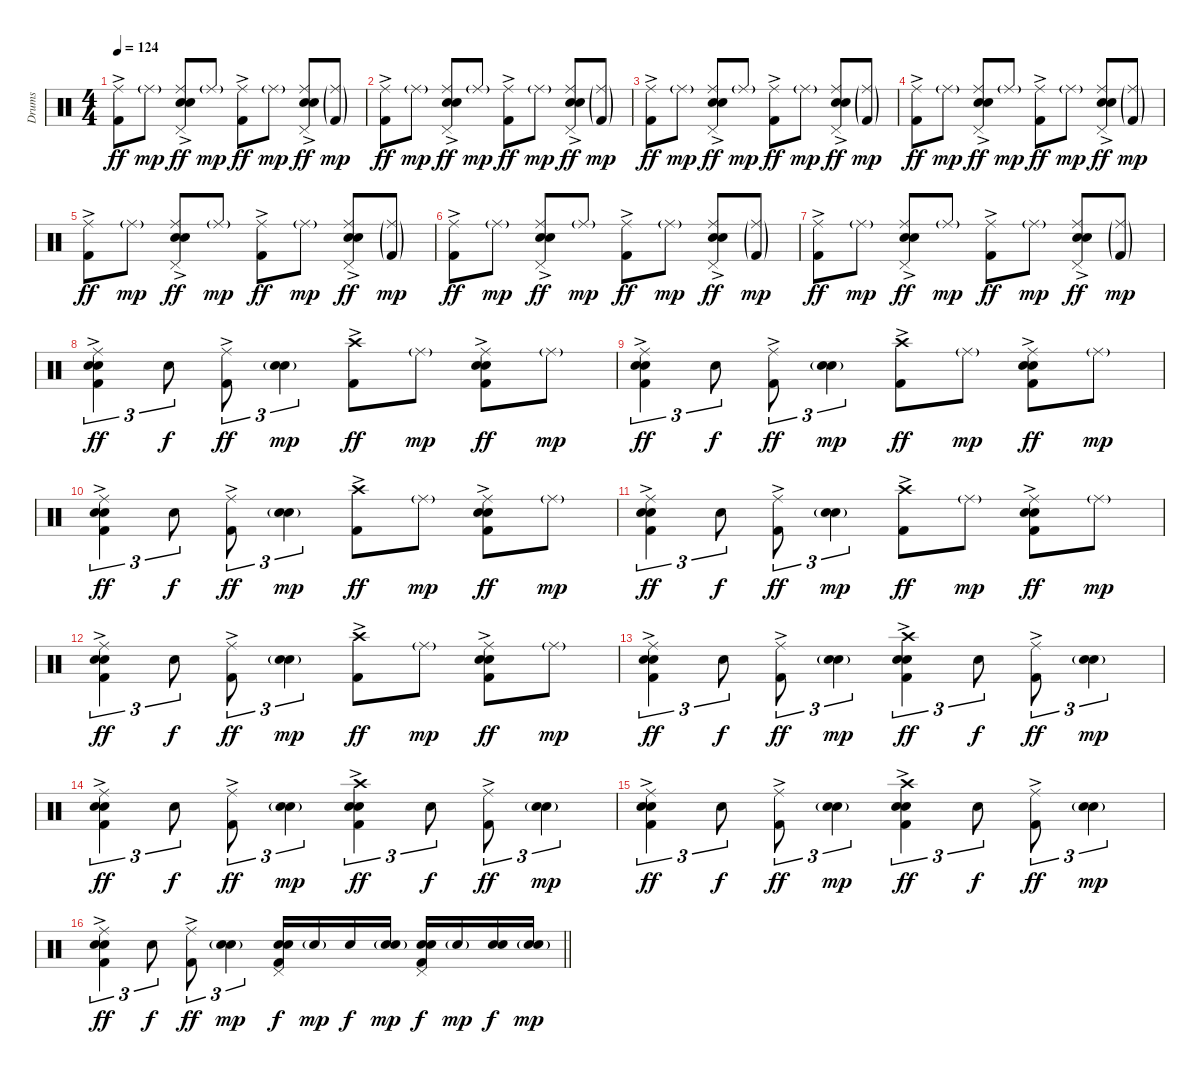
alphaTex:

\track ("Drums" "Drums") {instrument percussion}
\staff {score}
\articulation defaults
\ts (4 4)
\tempo 124
\clef neutral
\ks c
("Ride (middle)" "Kick (hit) 2"{ac}).8{dy ff} "Ride (middle)"{g}.8{dy mp} ("Ride (middle)" "Electric Snare (hit)"{ac} "Snare (hit) 2" "Pedal Hi-Hat (hit)").8{dy ff} "Ride (middle)"{g}.8{dy mp} ("Ride (middle)" "Kick (hit) 2"{ac}).8{dy ff} "Ride (middle)"{g}.8{dy mp} ("Ride (middle)" "Electric Snare (hit)"{ac} "Snare (hit) 2" "Pedal Hi-Hat (hit)").8{dy ff} ("Ride (middle)"{g} "Kick (hit) 2"{g}).8{dy mp} |
("Ride (middle)" "Kick (hit) 2"{ac}).8{dy ff} "Ride (middle)"{g}.8{dy mp} ("Ride (middle)" "Electric Snare (hit)"{ac} "Snare (hit) 2" "Pedal Hi-Hat (hit)").8{dy ff} "Ride (middle)"{g}.8{dy mp} ("Ride (middle)" "Kick (hit) 2"{ac}).8{dy ff} "Ride (middle)"{g}.8{dy mp} ("Ride (middle)" "Electric Snare (hit)"{ac} "Snare (hit) 2" "Pedal Hi-Hat (hit)").8{dy ff} ("Ride (middle)"{g} "Kick (hit) 2"{g}).8{dy mp} |
("Ride (middle)" "Kick (hit) 2"{ac}).8{dy ff} "Ride (middle)"{g}.8{dy mp} ("Ride (middle)" "Electric Snare (hit)"{ac} "Snare (hit) 2" "Pedal Hi-Hat (hit)").8{dy ff} "Ride (middle)"{g}.8{dy mp} ("Ride (middle)" "Kick (hit) 2"{ac}).8{dy ff} "Ride (middle)"{g}.8{dy mp} ("Ride (middle)" "Electric Snare (hit)"{ac} "Snare (hit) 2" "Pedal Hi-Hat (hit)").8{dy ff} ("Ride (middle)"{g} "Kick (hit) 2"{g}).8{dy mp} |
("Ride (middle)" "Kick (hit) 2"{ac}).8{dy ff} "Ride (middle)"{g}.8{dy mp} ("Ride (middle)" "Electric Snare (hit)"{ac} "Snare (hit) 2" "Pedal Hi-Hat (hit)").8{dy ff} "Ride (middle)"{g}.8{dy mp} ("Ride (middle)" "Kick (hit) 2"{ac}).8{dy ff} "Ride (middle)"{g}.8{dy mp} ("Ride (middle)" "Electric Snare (hit)"{ac} "Snare (hit) 2" "Pedal Hi-Hat (hit)").8{dy ff} ("Ride (middle)"{g} "Kick (hit) 2"{g}).8{dy mp} |
("Ride (middle)" "Kick (hit) 2"{ac}).8{dy ff} "Ride (middle)"{g}.8{dy mp} ("Ride (middle)" "Electric Snare (hit)"{ac} "Snare (hit) 2" "Pedal Hi-Hat (hit)").8{dy ff} "Ride (middle)"{g}.8{dy mp} ("Ride (middle)" "Kick (hit) 2"{ac}).8{dy ff} "Ride (middle)"{g}.8{dy mp} ("Ride (middle)" "Electric Snare (hit)"{ac} "Snare (hit) 2" "Pedal Hi-Hat (hit)").8{dy ff} ("Ride (middle)"{g} "Kick (hit) 2"{g}).8{dy mp} |
("Ride (middle)" "Kick (hit) 2"{ac}).8{dy ff} "Ride (middle)"{g}.8{dy mp} ("Ride (middle)" "Electric Snare (hit)"{ac} "Snare (hit) 2" "Pedal Hi-Hat (hit)").8{dy ff} "Ride (middle)"{g}.8{dy mp} ("Ride (middle)" "Kick (hit) 2"{ac}).8{dy ff} "Ride (middle)"{g}.8{dy mp} ("Ride (middle)" "Electric Snare (hit)"{ac} "Snare (hit) 2" "Pedal Hi-Hat (hit)").8{dy ff} ("Ride (middle)"{g} "Kick (hit) 2"{g}).8{dy mp} |
("Ride (middle)" "Kick (hit) 2"{ac}).8{dy ff} "Ride (middle)"{g}.8{dy mp} ("Ride (middle)" "Electric Snare (hit)"{ac} "Snare (hit) 2" "Pedal Hi-Hat (hit)").8{dy ff} "Ride (middle)"{g}.8{dy mp} ("Ride (middle)" "Kick (hit) 2"{ac}).8{dy ff} "Ride (middle)"{g}.8{dy mp} ("Ride (middle)" "Electric Snare (hit)"{ac} "Snare (hit) 2" "Pedal Hi-Hat (hit)").8{dy ff} ("Ride (middle)"{g} "Kick (hit) 2"{g}).8{dy mp} |
("Ride (middle)" "Electric Snare (hit)"{ac} "Snare (hit) 2" "Kick (hit) 2"{ac}).4{tu (3 2) dy ff} "Snare (hit) 2".8{tu (3 2) dy f} ("Ride (middle)" "Kick (hit) 2"{ac}).8{tu (3 2) dy ff} ("Electric Snare (hit)"{g} "Snare (hit) 2").4{tu (3 2) dy mp} ("Crash high (hit)" "Kick (hit) 2"{ac}).8{dy ff} "Ride (middle)"{g}.8{dy mp} ("Ride (middle)" "Electric Snare (hit)"{ac} "Snare (hit) 2" "Kick (hit) 2").8{dy ff} "Ride (middle)"{g}.8{dy mp} |
("Ride (middle)" "Electric Snare (hit)"{ac} "Snare (hit) 2" "Kick (hit) 2"{ac}).4{tu (3 2) dy ff} "Snare (hit) 2".8{tu (3 2) dy f} ("Ride (middle)" "Kick (hit) 2"{ac}).8{tu (3 2) dy ff} ("Electric Snare (hit)"{g} "Snare (hit) 2").4{tu (3 2) dy mp} ("Crash high (hit)" "Kick (hit) 2"{ac}).8{dy ff} "Ride (middle)"{g}.8{dy mp} ("Ride (middle)" "Electric Snare (hit)"{ac} "Snare (hit) 2" "Kick (hit) 2").8{dy ff} "Ride (middle)"{g}.8{dy mp} |
("Ride (middle)" "Electric Snare (hit)"{ac} "Snare (hit) 2" "Kick (hit) 2"{ac}).4{tu (3 2) dy ff} "Snare (hit) 2".8{tu (3 2) dy f} ("Ride (middle)" "Kick (hit) 2"{ac}).8{tu (3 2) dy ff} ("Electric Snare (hit)"{g} "Snare (hit) 2").4{tu (3 2) dy mp} ("Crash high (hit)" "Kick (hit) 2"{ac}).8{dy ff} "Ride (middle)"{g}.8{dy mp} ("Ride (middle)" "Electric Snare (hit)"{ac} "Snare (hit) 2" "Kick (hit) 2").8{dy ff} "Ride (middle)"{g}.8{dy mp} |
("Ride (middle)" "Electric Snare (hit)"{ac} "Snare (hit) 2" "Kick (hit) 2"{ac}).4{tu (3 2) dy ff} "Snare (hit) 2".8{tu (3 2) dy f} ("Ride (middle)" "Kick (hit) 2"{ac}).8{tu (3 2) dy ff} ("Electric Snare (hit)"{g} "Snare (hit) 2").4{tu (3 2) dy mp} ("Crash high (hit)" "Kick (hit) 2"{ac}).8{dy ff} "Ride (middle)"{g}.8{dy mp} ("Ride (middle)" "Electric Snare (hit)"{ac} "Snare (hit) 2" "Kick (hit) 2").8{dy ff} "Ride (middle)"{g}.8{dy mp} |
("Ride (middle)" "Electric Snare (hit)"{ac} "Snare (hit) 2" "Kick (hit) 2"{ac}).4{tu (3 2) dy ff} "Snare (hit) 2".8{tu (3 2) dy f} ("Ride (middle)" "Kick (hit) 2"{ac}).8{tu (3 2) dy ff} ("Electric Snare (hit)"{g} "Snare (hit) 2").4{tu (3 2) dy mp} ("Crash high (hit)" "Kick (hit) 2"{ac}).8{dy ff} "Ride (middle)"{g}.8{dy mp} ("Ride (middle)" "Electric Snare (hit)"{ac} "Snare (hit) 2" "Kick (hit) 2").8{dy ff} "Ride (middle)"{g}.8{dy mp} |
("Ride (middle)" "Electric Snare (hit)"{ac} "Snare (hit) 2" "Kick (hit) 2"{ac}).4{tu (3 2) dy ff} "Snare (hit) 2".8{tu (3 2) dy f} ("Ride (middle)" "Kick (hit) 2"{ac}).8{tu (3 2) dy ff} ("Electric Snare (hit)"{g} "Snare (hit) 2").4{tu (3 2) dy mp} ("Crash high (hit)" "Electric Snare (hit)"{ac} "Snare (hit) 2" "Kick (hit) 2"{ac}).4{tu (3 2) dy ff} "Snare (hit) 2".8{tu (3 2) dy f} ("Ride (middle)" "Kick (hit) 2"{ac}).8{tu (3 2) dy ff} ("Electric Snare (hit)"{g} "Snare (hit) 2").4{tu (3 2) dy mp} |
("Ride (middle)" "Electric Snare (hit)"{ac} "Snare (hit) 2" "Kick (hit) 2"{ac}).4{tu (3 2) dy ff} "Snare (hit) 2".8{tu (3 2) dy f} ("Ride (middle)" "Kick (hit) 2"{ac}).8{tu (3 2) dy ff} ("Electric Snare (hit)"{g} "Snare (hit) 2").4{tu (3 2) dy mp} ("Crash high (hit)" "Electric Snare (hit)"{ac} "Snare (hit) 2" "Kick (hit) 2"{ac}).4{tu (3 2) dy ff} "Snare (hit) 2".8{tu (3 2) dy f} ("Ride (middle)" "Kick (hit) 2"{ac}).8{tu (3 2) dy ff} ("Electric Snare (hit)"{g} "Snare (hit) 2").4{tu (3 2) dy mp} |
("Ride (middle)" "Electric Snare (hit)"{ac} "Snare (hit) 2" "Kick (hit) 2"{ac}).4{tu (3 2) dy ff} "Snare (hit) 2".8{tu (3 2) dy f} ("Ride (middle)" "Kick (hit) 2"{ac}).8{tu (3 2) dy ff} ("Electric Snare (hit)"{g} "Snare (hit) 2").4{tu (3 2) dy mp} ("Crash high (hit)" "Electric Snare (hit)"{ac} "Snare (hit) 2" "Kick (hit) 2"{ac}).4{tu (3 2) dy ff} "Snare (hit) 2".8{tu (3 2) dy f} ("Ride (middle)" "Kick (hit) 2"{ac}).8{tu (3 2) dy ff} ("Electric Snare (hit)"{g} "Snare (hit) 2").4{tu (3 2) dy mp} |
\barLineRight lightlight
("Ride (middle)" "Electric Snare (hit)"{ac} "Snare (hit) 2" "Kick (hit) 2"{ac}).4{tu (3 2) dy ff} "Snare (hit) 2".8{tu (3 2) dy f} ("Ride (middle)" "Kick (hit) 2"{ac}).8{tu (3 2) dy ff} ("Electric Snare (hit)"{g} "Snare (hit) 2").4{tu (3 2) dy mp} ("Pedal Hi-Hat (hit)" "Electric Snare (hit)" "Snare (hit) 2" "Kick (hit) 2").16{dy f} "Snare (hit) 2"{g}.16{dy mp} "Snare (hit) 2".16{dy f} ("Electric Snare (hit)"{g} "Snare (hit) 2"{g}).16{dy mp} ("Pedal Hi-Hat (hit)" "Electric Snare (hit)" "Snare (hit) 2" "Kick (hit) 2").16{dy f} "Snare (hit) 2"{g}.16{dy mp} ("Electric Snare (hit)" "Snare (hit) 2").16{dy f} ("Electric Snare (hit)"{g} "Snare (hit) 2"{g}).16{dy mp}
